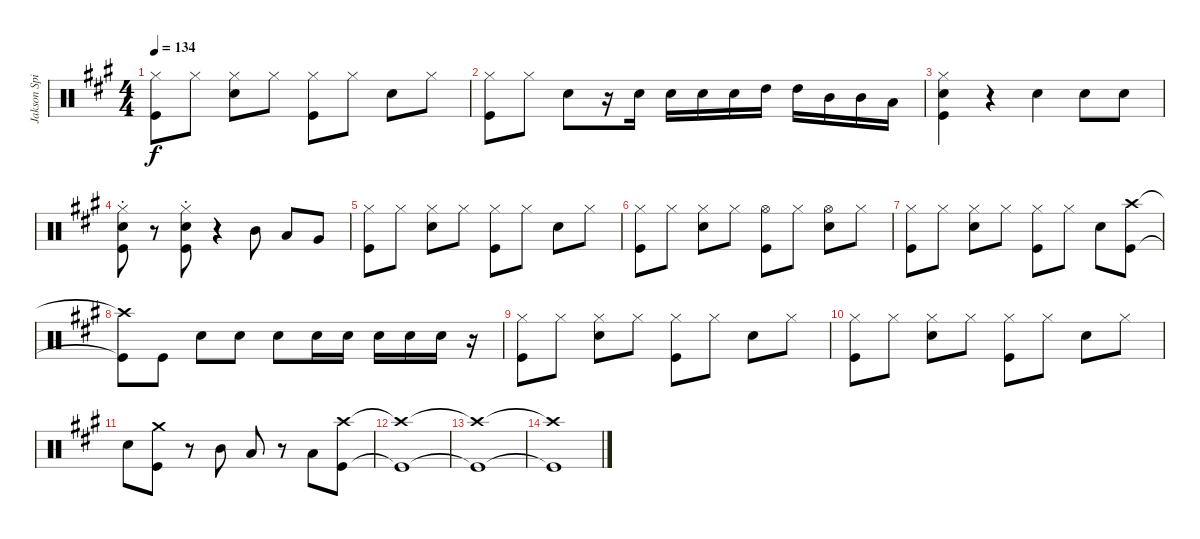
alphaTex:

\track ("Jakson Spires Drums" "Jakson Spi") {instrument percussion}
\staff {score}
\articulation defaults
\ts (4 4)
\tempo 134
\clef neutral
\ks a
("Hi-Hat (closed)" "Kick (hit)").8{dy f} "Hi-Hat (closed)".8 ("Hi-Hat (closed)" "Snare (hit) 2").8 "Hi-Hat (closed)".8 ("Hi-Hat (closed)" "Kick (hit)").8 "Hi-Hat (closed)".8 "Snare (hit) 2".8 "Hi-Hat (closed)".8 |
("Hi-Hat (closed)" "Kick (hit)").8 "Hi-Hat (closed)".8 "Snare (hit) 2".8 r.16 "Snare (hit) 2".16 "Snare (hit) 2".16 "Snare (hit) 2".16 "Snare (hit) 2".16 "High Tom (hit)".16 "High Tom (hit)".16 "Mid Tom (hit)".16 "Mid Tom (hit)".16 "Low Tom (hit)".16 |
("Hi-Hat (closed)" "Snare (hit) 2" "Kick (hit)").4 r.4 "Snare (hit) 2".4 "Snare (hit) 2".8 "Snare (hit) 2".8 |
("Hi-Hat (closed)" "Snare (hit) 2" "Kick (hit)"{st}).8 r.8 ("Hi-Hat (closed)" "Snare (hit) 2" "Kick (hit)"{st}).8 r.4 "Mid Tom (hit)".8 "Low Tom (hit)".8 "Very Low Tom (hit)".8 |
("Hi-Hat (closed)" "Kick (hit)").8 "Hi-Hat (closed)".8 ("Hi-Hat (closed)" "Snare (hit) 2").8 "Hi-Hat (closed)".8 ("Hi-Hat (closed)" "Kick (hit)").8 "Hi-Hat (closed)".8 "Snare (hit) 2".8 "Hi-Hat (closed)".8 |
("Hi-Hat (closed)" "Kick (hit)").8 "Hi-Hat (closed)".8 ("Hi-Hat (closed)" "Snare (hit) 2").8 "Hi-Hat (closed)".8 ("Hi-Hat (open)" "Kick (hit)").8 "Hi-Hat (closed)".8 ("Hi-Hat (open)" "Snare (hit) 2").8 "Hi-Hat (closed)".8 |
("Hi-Hat (closed)" "Kick (hit)").8 "Hi-Hat (closed)".8 ("Hi-Hat (closed)" "Snare (hit) 2").8 "Hi-Hat (closed)".8 ("Hi-Hat (closed)" "Kick (hit)").8 "Hi-Hat (closed)".8 "Snare (hit) 2".8 ("Crash high (hit)" "Kick (hit)").8 |
("Crash high (hit)"{t} "Kick (hit)"{t}).8 "Kick (hit)".8 "Snare (hit) 2".8 "Snare (hit) 2".8 "Snare (hit) 2".8 "Snare (hit) 2".16 "Snare (hit) 2".16 "Snare (hit) 2".16 "Snare (hit) 2".16 "Snare (hit) 2".16 r.16 |
("Hi-Hat (closed)" "Kick (hit)").8 "Hi-Hat (closed)".8 ("Hi-Hat (closed)" "Snare (hit) 2").8 "Hi-Hat (closed)".8 ("Hi-Hat (closed)" "Kick (hit)").8 "Hi-Hat (closed)".8 "Snare (hit) 2".8 "Hi-Hat (closed)".8 |
("Hi-Hat (closed)" "Kick (hit)").8 "Hi-Hat (closed)".8 ("Hi-Hat (closed)" "Snare (hit) 2").8 "Hi-Hat (closed)".8 ("Hi-Hat (closed)" "Kick (hit)").8 "Hi-Hat (closed)".8 "Snare (hit) 2".8 "Hi-Hat (closed)".8 |
"Snare (hit) 2".8 ("Crash medium (hit)" "Kick (hit)").8 r.8 "Mid Tom (hit)".8 "Low Tom (hit)".8 r.8 "Low Tom (hit)".8 ("Crash high (hit)" "Kick (hit)").8 |
("Crash high (hit)"{t} "Kick (hit)"{t}).1 |
("Crash high (hit)"{t} "Kick (hit)"{t}).1 |
("Crash high (hit)"{t} "Kick (hit)"{t}).1
